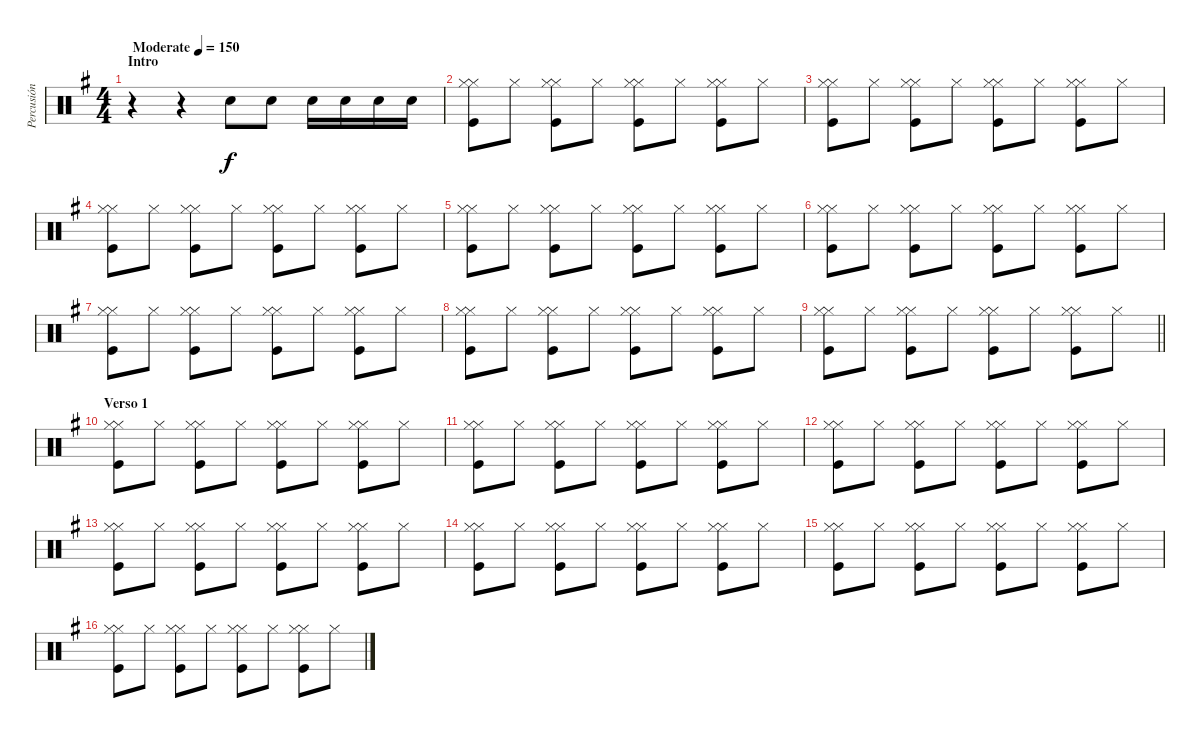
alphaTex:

\track ("Percusión" "Percusión") {instrument percussion}
\staff {score}
\articulation defaults
\ts (4 4)
\section ("" "Intro")
\tempo (150 "Moderate")
\clef neutral
\ks g
r.4{dy f} r.4 "Electric Snare (hit)".8 "Electric Snare (hit)".8 "Electric Snare (hit)".16 "Electric Snare (hit)".16 "Electric Snare (hit)".16 "Electric Snare (hit)".16 |
("Hi-Hat (closed)" "Kick (hit)" "Hi-Hat (closed)").8 "Hi-Hat (closed)".8 ("Hi-Hat (closed)" "Kick (hit)" "Hi-Hat (closed)").8 "Hi-Hat (closed)".8 ("Hi-Hat (closed)" "Kick (hit)" "Hi-Hat (closed)").8 "Hi-Hat (closed)".8 ("Hi-Hat (closed)" "Kick (hit)" "Hi-Hat (closed)").8 "Hi-Hat (closed)".8 |
("Hi-Hat (closed)" "Kick (hit)" "Hi-Hat (closed)").8 "Hi-Hat (closed)".8 ("Hi-Hat (closed)" "Kick (hit)" "Hi-Hat (closed)").8 "Hi-Hat (closed)".8 ("Hi-Hat (closed)" "Kick (hit)" "Hi-Hat (closed)").8 "Hi-Hat (closed)".8 ("Hi-Hat (closed)" "Kick (hit)" "Hi-Hat (closed)").8 "Hi-Hat (closed)".8 |
("Hi-Hat (closed)" "Kick (hit)" "Hi-Hat (closed)").8 "Hi-Hat (closed)".8 ("Hi-Hat (closed)" "Kick (hit)" "Hi-Hat (closed)").8 "Hi-Hat (closed)".8 ("Hi-Hat (closed)" "Kick (hit)" "Hi-Hat (closed)").8 "Hi-Hat (closed)".8 ("Hi-Hat (closed)" "Kick (hit)" "Hi-Hat (closed)").8 "Hi-Hat (closed)".8 |
("Hi-Hat (closed)" "Kick (hit)" "Hi-Hat (closed)").8 "Hi-Hat (closed)".8 ("Hi-Hat (closed)" "Kick (hit)" "Hi-Hat (closed)").8 "Hi-Hat (closed)".8 ("Hi-Hat (closed)" "Kick (hit)" "Hi-Hat (closed)").8 "Hi-Hat (closed)".8 ("Hi-Hat (closed)" "Kick (hit)" "Hi-Hat (closed)").8 "Hi-Hat (closed)".8 |
("Hi-Hat (closed)" "Kick (hit)" "Hi-Hat (closed)").8 "Hi-Hat (closed)".8 ("Hi-Hat (closed)" "Kick (hit)" "Hi-Hat (closed)").8 "Hi-Hat (closed)".8 ("Hi-Hat (closed)" "Kick (hit)" "Hi-Hat (closed)").8 "Hi-Hat (closed)".8 ("Hi-Hat (closed)" "Kick (hit)" "Hi-Hat (closed)").8 "Hi-Hat (closed)".8 |
("Hi-Hat (closed)" "Kick (hit)" "Hi-Hat (closed)").8 "Hi-Hat (closed)".8 ("Hi-Hat (closed)" "Kick (hit)" "Hi-Hat (closed)").8 "Hi-Hat (closed)".8 ("Hi-Hat (closed)" "Kick (hit)" "Hi-Hat (closed)").8 "Hi-Hat (closed)".8 ("Hi-Hat (closed)" "Kick (hit)" "Hi-Hat (closed)").8 "Hi-Hat (closed)".8 |
("Hi-Hat (closed)" "Kick (hit)" "Hi-Hat (closed)").8 "Hi-Hat (closed)".8 ("Hi-Hat (closed)" "Kick (hit)" "Hi-Hat (closed)").8 "Hi-Hat (closed)".8 ("Hi-Hat (closed)" "Kick (hit)" "Hi-Hat (closed)").8 "Hi-Hat (closed)".8 ("Hi-Hat (closed)" "Kick (hit)" "Hi-Hat (closed)").8 "Hi-Hat (closed)".8 |
\barLineRight lightlight
("Hi-Hat (closed)" "Kick (hit)" "Hi-Hat (closed)").8 "Hi-Hat (closed)".8 ("Hi-Hat (closed)" "Kick (hit)" "Hi-Hat (closed)").8 "Hi-Hat (closed)".8 ("Hi-Hat (closed)" "Kick (hit)" "Hi-Hat (closed)").8 "Hi-Hat (closed)".8 ("Hi-Hat (closed)" "Kick (hit)" "Hi-Hat (closed)").8 "Hi-Hat (closed)".8 |
\section ("" "Verso 1")
("Hi-Hat (closed)" "Kick (hit)" "Hi-Hat (closed)").8 "Hi-Hat (closed)".8 ("Hi-Hat (closed)" "Kick (hit)" "Hi-Hat (closed)").8 "Hi-Hat (closed)".8 ("Hi-Hat (closed)" "Kick (hit)" "Hi-Hat (closed)").8 "Hi-Hat (closed)".8 ("Hi-Hat (closed)" "Kick (hit)" "Hi-Hat (closed)").8 "Hi-Hat (closed)".8 |
("Hi-Hat (closed)" "Kick (hit)" "Hi-Hat (closed)").8 "Hi-Hat (closed)".8 ("Hi-Hat (closed)" "Kick (hit)" "Hi-Hat (closed)").8 "Hi-Hat (closed)".8 ("Hi-Hat (closed)" "Kick (hit)" "Hi-Hat (closed)").8 "Hi-Hat (closed)".8 ("Hi-Hat (closed)" "Kick (hit)" "Hi-Hat (closed)").8 "Hi-Hat (closed)".8 |
("Hi-Hat (closed)" "Kick (hit)" "Hi-Hat (closed)").8 "Hi-Hat (closed)".8 ("Hi-Hat (closed)" "Kick (hit)" "Hi-Hat (closed)").8 "Hi-Hat (closed)".8 ("Hi-Hat (closed)" "Kick (hit)" "Hi-Hat (closed)").8 "Hi-Hat (closed)".8 ("Hi-Hat (closed)" "Kick (hit)" "Hi-Hat (closed)").8 "Hi-Hat (closed)".8 |
("Hi-Hat (closed)" "Kick (hit)" "Hi-Hat (closed)").8 "Hi-Hat (closed)".8 ("Hi-Hat (closed)" "Kick (hit)" "Hi-Hat (closed)").8 "Hi-Hat (closed)".8 ("Hi-Hat (closed)" "Kick (hit)" "Hi-Hat (closed)").8 "Hi-Hat (closed)".8 ("Hi-Hat (closed)" "Kick (hit)" "Hi-Hat (closed)").8 "Hi-Hat (closed)".8 |
("Hi-Hat (closed)" "Kick (hit)" "Hi-Hat (closed)").8 "Hi-Hat (closed)".8 ("Hi-Hat (closed)" "Kick (hit)" "Hi-Hat (closed)").8 "Hi-Hat (closed)".8 ("Hi-Hat (closed)" "Kick (hit)" "Hi-Hat (closed)").8 "Hi-Hat (closed)".8 ("Hi-Hat (closed)" "Kick (hit)" "Hi-Hat (closed)").8 "Hi-Hat (closed)".8 |
("Hi-Hat (closed)" "Kick (hit)" "Hi-Hat (closed)").8 "Hi-Hat (closed)".8 ("Hi-Hat (closed)" "Kick (hit)" "Hi-Hat (closed)").8 "Hi-Hat (closed)".8 ("Hi-Hat (closed)" "Kick (hit)" "Hi-Hat (closed)").8 "Hi-Hat (closed)".8 ("Hi-Hat (closed)" "Kick (hit)" "Hi-Hat (closed)").8 "Hi-Hat (closed)".8 |
("Hi-Hat (closed)" "Kick (hit)" "Hi-Hat (closed)").8 "Hi-Hat (closed)".8 ("Hi-Hat (closed)" "Kick (hit)" "Hi-Hat (closed)").8 "Hi-Hat (closed)".8 ("Hi-Hat (closed)" "Kick (hit)" "Hi-Hat (closed)").8 "Hi-Hat (closed)".8 ("Hi-Hat (closed)" "Kick (hit)" "Hi-Hat (closed)").8 "Hi-Hat (closed)".8
